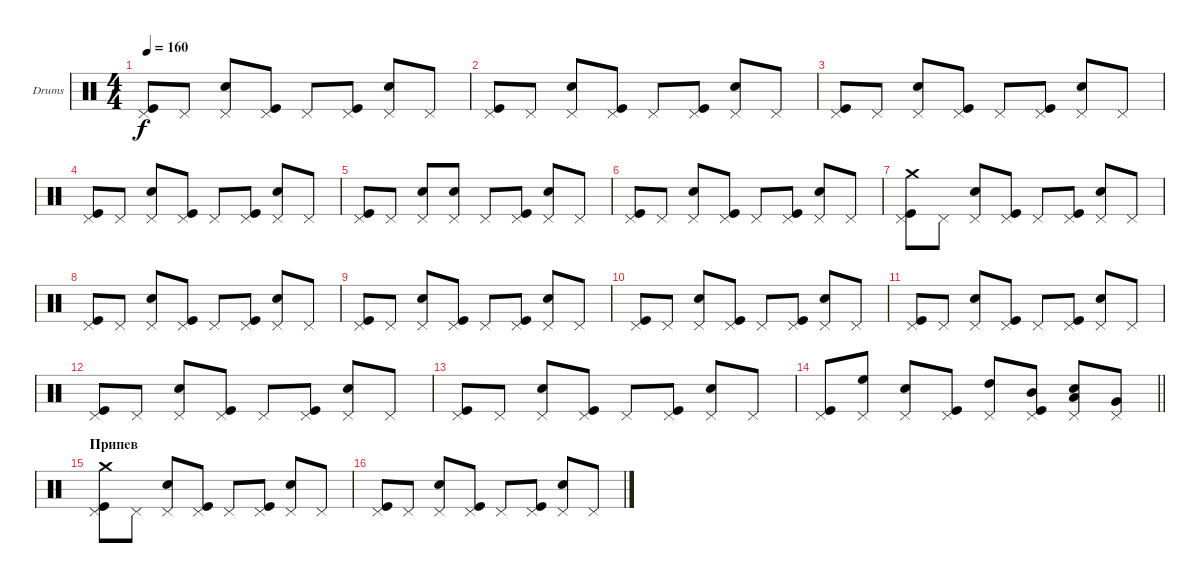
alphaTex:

\bracketExtendMode groupsimilarinstruments
\firstSystemTrackNameOrientation horizontal
\otherSystemsTrackNameOrientation horizontal
\track ("Ударные" "Drums") {instrument percussion}
\staff {score}
\articulation defaults
\ts (4 4)
\tempo 160
\clef neutral
\ks c
("Pedal Hi-Hat (hit)" "Kick (hit)").8{dy f} "Pedal Hi-Hat (hit)".8 ("Pedal Hi-Hat (hit)" "Snare (hit) 2").8 ("Pedal Hi-Hat (hit)" "Kick (hit)").8 "Pedal Hi-Hat (hit)".8 ("Pedal Hi-Hat (hit)" "Kick (hit)").8 ("Pedal Hi-Hat (hit)" "Snare (hit) 2").8 "Pedal Hi-Hat (hit)".8 |
("Pedal Hi-Hat (hit)" "Kick (hit)").8 "Pedal Hi-Hat (hit)".8 ("Pedal Hi-Hat (hit)" "Snare (hit) 2").8 ("Pedal Hi-Hat (hit)" "Kick (hit)").8 "Pedal Hi-Hat (hit)".8 ("Pedal Hi-Hat (hit)" "Kick (hit)").8 ("Pedal Hi-Hat (hit)" "Snare (hit) 2").8 "Pedal Hi-Hat (hit)".8 |
("Pedal Hi-Hat (hit)" "Kick (hit)").8 "Pedal Hi-Hat (hit)".8 ("Pedal Hi-Hat (hit)" "Snare (hit) 2").8 ("Pedal Hi-Hat (hit)" "Kick (hit)").8 "Pedal Hi-Hat (hit)".8 ("Pedal Hi-Hat (hit)" "Kick (hit)").8 ("Pedal Hi-Hat (hit)" "Snare (hit) 2").8 "Pedal Hi-Hat (hit)".8 |
("Pedal Hi-Hat (hit)" "Kick (hit)").8 "Pedal Hi-Hat (hit)".8 ("Pedal Hi-Hat (hit)" "Snare (hit) 2").8 ("Pedal Hi-Hat (hit)" "Kick (hit)").8 "Pedal Hi-Hat (hit)".8 ("Pedal Hi-Hat (hit)" "Kick (hit)").8 ("Pedal Hi-Hat (hit)" "Snare (hit) 2").8 "Pedal Hi-Hat (hit)".8 |
("Pedal Hi-Hat (hit)" "Kick (hit)").8 "Pedal Hi-Hat (hit)".8 ("Pedal Hi-Hat (hit)" "Snare (hit) 2").8 ("Pedal Hi-Hat (hit)" "Snare (hit) 2").8 "Pedal Hi-Hat (hit)".8 ("Pedal Hi-Hat (hit)" "Kick (hit)").8 ("Pedal Hi-Hat (hit)" "Snare (hit) 2").8 "Pedal Hi-Hat (hit)".8 |
("Pedal Hi-Hat (hit)" "Kick (hit)").8 "Pedal Hi-Hat (hit)".8 ("Pedal Hi-Hat (hit)" "Snare (hit) 2").8 ("Pedal Hi-Hat (hit)" "Kick (hit)").8 "Pedal Hi-Hat (hit)".8 ("Pedal Hi-Hat (hit)" "Kick (hit)").8 ("Pedal Hi-Hat (hit)" "Snare (hit) 2").8 "Pedal Hi-Hat (hit)".8 |
("Pedal Hi-Hat (hit)" "Crash medium (hit)" "Kick (hit)").8 "Pedal Hi-Hat (hit)".8 ("Pedal Hi-Hat (hit)" "Snare (hit) 2").8 ("Pedal Hi-Hat (hit)" "Kick (hit)").8 "Pedal Hi-Hat (hit)".8 ("Pedal Hi-Hat (hit)" "Kick (hit)").8 ("Pedal Hi-Hat (hit)" "Snare (hit) 2").8 "Pedal Hi-Hat (hit)".8 |
("Pedal Hi-Hat (hit)" "Kick (hit)").8 "Pedal Hi-Hat (hit)".8 ("Pedal Hi-Hat (hit)" "Snare (hit) 2").8 ("Pedal Hi-Hat (hit)" "Kick (hit)").8 "Pedal Hi-Hat (hit)".8 ("Pedal Hi-Hat (hit)" "Kick (hit)").8 ("Pedal Hi-Hat (hit)" "Snare (hit) 2").8 "Pedal Hi-Hat (hit)".8 |
("Pedal Hi-Hat (hit)" "Kick (hit)").8 "Pedal Hi-Hat (hit)".8 ("Pedal Hi-Hat (hit)" "Snare (hit) 2").8 ("Pedal Hi-Hat (hit)" "Kick (hit)").8 "Pedal Hi-Hat (hit)".8 ("Pedal Hi-Hat (hit)" "Kick (hit)").8 ("Pedal Hi-Hat (hit)" "Snare (hit) 2").8 "Pedal Hi-Hat (hit)".8 |
("Pedal Hi-Hat (hit)" "Kick (hit)").8 "Pedal Hi-Hat (hit)".8 ("Pedal Hi-Hat (hit)" "Snare (hit) 2").8 ("Pedal Hi-Hat (hit)" "Kick (hit)").8 "Pedal Hi-Hat (hit)".8 ("Pedal Hi-Hat (hit)" "Kick (hit)").8 ("Pedal Hi-Hat (hit)" "Snare (hit) 2").8 "Pedal Hi-Hat (hit)".8 |
("Pedal Hi-Hat (hit)" "Kick (hit)").8 "Pedal Hi-Hat (hit)".8 ("Pedal Hi-Hat (hit)" "Snare (hit) 2").8 ("Pedal Hi-Hat (hit)" "Kick (hit)").8 "Pedal Hi-Hat (hit)".8 ("Pedal Hi-Hat (hit)" "Kick (hit)").8 ("Pedal Hi-Hat (hit)" "Snare (hit) 2").8 "Pedal Hi-Hat (hit)".8 |
("Pedal Hi-Hat (hit)" "Kick (hit)").8 "Pedal Hi-Hat (hit)".8 ("Pedal Hi-Hat (hit)" "Snare (hit) 2").8 ("Pedal Hi-Hat (hit)" "Kick (hit)").8 "Pedal Hi-Hat (hit)".8 ("Pedal Hi-Hat (hit)" "Kick (hit)").8 ("Pedal Hi-Hat (hit)" "Snare (hit) 2").8 "Pedal Hi-Hat (hit)".8 |
("Pedal Hi-Hat (hit)" "Kick (hit)").8 "Pedal Hi-Hat (hit)".8 ("Pedal Hi-Hat (hit)" "Snare (hit) 2").8 ("Pedal Hi-Hat (hit)" "Kick (hit)").8 "Pedal Hi-Hat (hit)".8 ("Pedal Hi-Hat (hit)" "Kick (hit)").8 ("Pedal Hi-Hat (hit)" "Snare (hit) 2").8 "Pedal Hi-Hat (hit)".8 |
\barLineRight lightlight
("Pedal Hi-Hat (hit)" "Kick (hit)").8 ("Pedal Hi-Hat (hit)" "High Floor Tom (hit)").8 ("Pedal Hi-Hat (hit)" "Snare (hit) 2").8 ("Pedal Hi-Hat (hit)" "Kick (hit)").8 ("Pedal Hi-Hat (hit)" "High Tom (hit)").8 ("Pedal Hi-Hat (hit)" "Mid Tom (hit)" "Kick (hit)").8 ("Pedal Hi-Hat (hit)" "Low Tom (hit)" "Snare (hit) 2").8 ("Pedal Hi-Hat (hit)" "Very Low Tom (hit)").8 |
\section ("" "Припев")
("Pedal Hi-Hat (hit)" "Crash medium (hit)" "Kick (hit)").8 "Pedal Hi-Hat (hit)".8 ("Pedal Hi-Hat (hit)" "Snare (hit) 2").8 ("Pedal Hi-Hat (hit)" "Kick (hit)").8 "Pedal Hi-Hat (hit)".8 ("Pedal Hi-Hat (hit)" "Kick (hit)").8 ("Pedal Hi-Hat (hit)" "Snare (hit) 2").8 "Pedal Hi-Hat (hit)".8 |
("Pedal Hi-Hat (hit)" "Kick (hit)").8 "Pedal Hi-Hat (hit)".8 ("Pedal Hi-Hat (hit)" "Snare (hit) 2").8 ("Pedal Hi-Hat (hit)" "Kick (hit)").8 "Pedal Hi-Hat (hit)".8 ("Pedal Hi-Hat (hit)" "Kick (hit)").8 ("Pedal Hi-Hat (hit)" "Snare (hit) 2").8 "Pedal Hi-Hat (hit)".8
